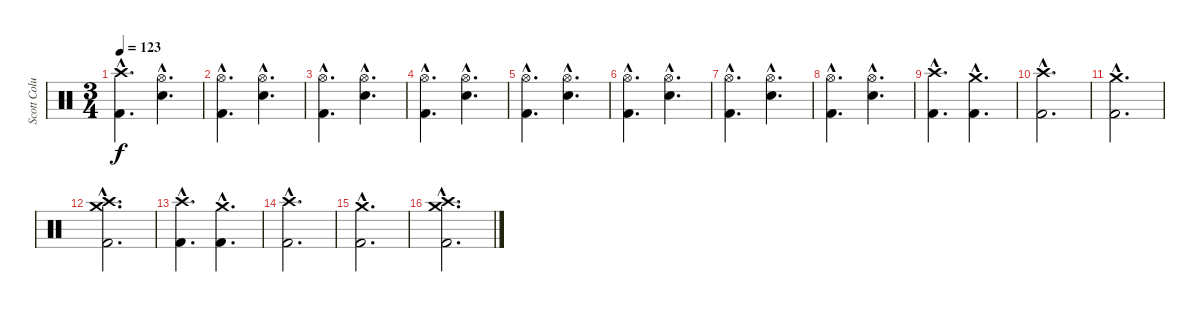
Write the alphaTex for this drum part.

\track ("Scott Columbus" "Scott Colu") {instrument percussion}
\staff {score}
\articulation defaults
\ts (3 4)
\tempo 123
\clef neutral
\ks c
("Crash high (hit)"{hac} "Kick (hit) 2"{hac}).4{d dy f} ("Hi-Hat (open)"{hac} "Snare (hit) 2"{hac}).4{d} |
("Hi-Hat (open)"{hac} "Kick (hit) 2"{hac}).4{d} ("Hi-Hat (open)"{hac} "Snare (hit) 2"{hac}).4{d} |
("Hi-Hat (open)"{hac} "Kick (hit) 2"{hac}).4{d} ("Hi-Hat (open)"{hac} "Snare (hit) 2"{hac}).4{d} |
("Hi-Hat (open)"{hac} "Kick (hit) 2"{hac}).4{d} ("Hi-Hat (open)"{hac} "Snare (hit) 2"{hac}).4{d} |
("Hi-Hat (open)"{hac} "Kick (hit) 2"{hac}).4{d} ("Hi-Hat (open)"{hac} "Snare (hit) 2"{hac}).4{d} |
("Hi-Hat (open)"{hac} "Kick (hit) 2"{hac}).4{d} ("Hi-Hat (open)"{hac} "Snare (hit) 2"{hac}).4{d} |
("Hi-Hat (open)"{hac} "Kick (hit) 2"{hac}).4{d} ("Hi-Hat (open)"{hac} "Snare (hit) 2"{hac}).4{d} |
("Hi-Hat (open)"{hac} "Kick (hit) 2"{hac}).4{d} ("Hi-Hat (open)"{hac} "Snare (hit) 2"{hac}).4{d} |
("Crash high (hit)"{hac} "Kick (hit) 2"{hac}).4{d} ("Crash medium (hit)"{hac} "Kick (hit) 2"{hac}).4{d} |
("Crash high (hit)"{hac} "Kick (hit) 2"{hac}).2{d} |
("Crash medium (hit)"{hac} "Kick (hit) 2"{hac}).2{d} |
("Crash high (hit)"{hac} "Crash medium (hit)"{hac} "Kick (hit) 2"{hac}).2{d} |
("Crash high (hit)"{hac} "Kick (hit) 2"{hac}).4{d} ("Crash medium (hit)"{hac} "Kick (hit) 2"{hac}).4{d} |
("Crash high (hit)"{hac} "Kick (hit) 2"{hac}).2{d} |
("Crash medium (hit)"{hac} "Kick (hit) 2"{hac}).2{d} |
("Crash high (hit)"{hac} "Crash medium (hit)"{hac} "Kick (hit) 2"{hac}).2{d}
